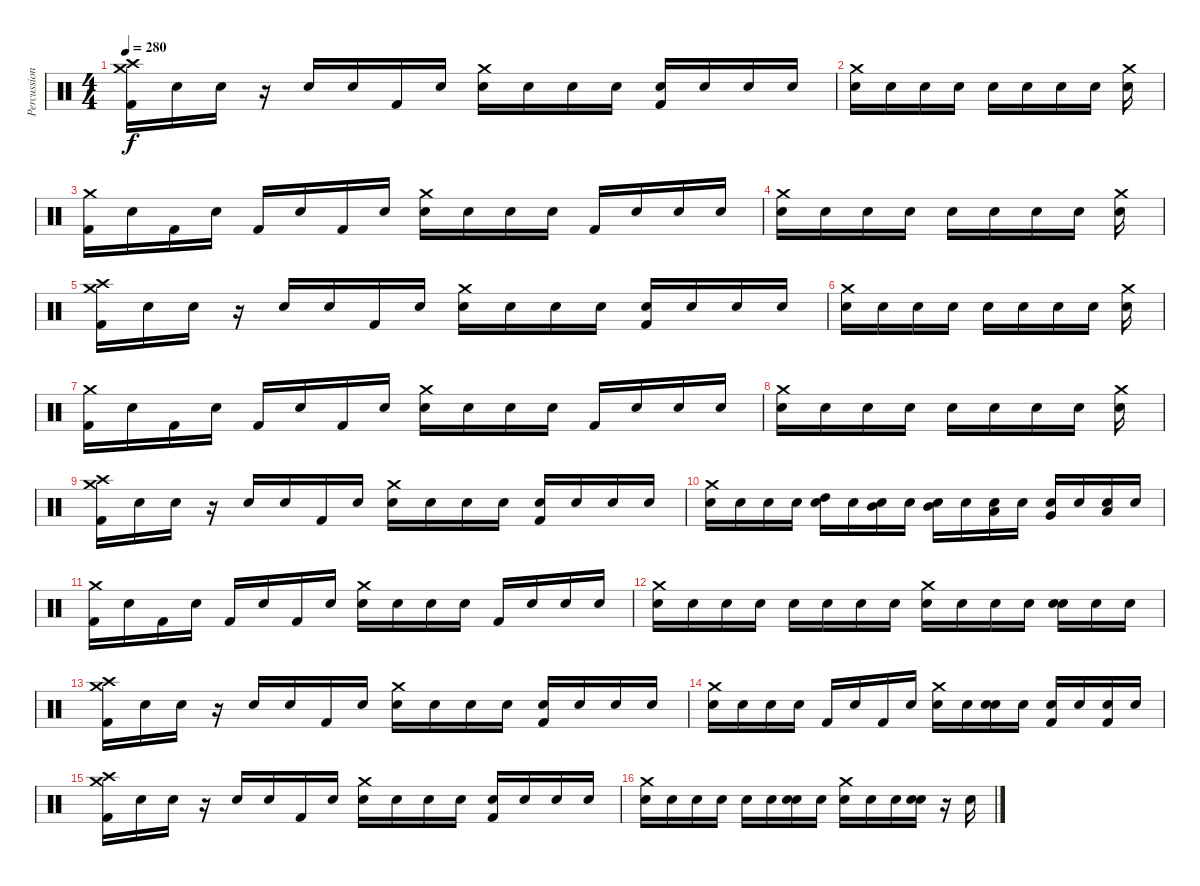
\track ("Percussion" "Percussion") {instrument percussion}
\staff {score}
\articulation defaults
\ts (4 4)
\tempo 280
\clef neutral
\ks c
("Crash high (hit)" "Crash medium (hit)" "Kick (hit) 2").16{dy f} "Snare (hit)".16 "Snare (hit)".16 r.16 "Snare (hit)".16 "Snare (hit)".16 "Kick (hit) 2".16 "Snare (hit)".16 ("Crash medium (hit)" "Snare (hit)").16 "Snare (hit)".16 "Snare (hit)".16 "Snare (hit)".16 ("Kick (hit) 2" "Snare (hit)").16 "Snare (hit)".16 "Snare (hit)".16 "Snare (hit)".16 |
("Crash medium (hit)" "Snare (hit) 2").16 "Snare (hit)".16 "Snare (hit)".16 "Snare (hit)".16 "Snare (hit)".16 "Snare (hit)".16 "Snare (hit)".16 "Snare (hit)".16 ("Crash medium (hit)" "Snare (hit)").16 |
("Crash medium (hit)" "Kick (hit) 2").16 "Snare (hit)".16 "Kick (hit) 2".16 "Snare (hit)".16 "Kick (hit) 2".16 "Snare (hit)".16 "Kick (hit) 2".16 "Snare (hit)".16 ("Crash medium (hit)" "Snare (hit)").16 "Snare (hit)".16 "Snare (hit)".16 "Snare (hit)".16 "Kick (hit) 2".16 "Snare (hit)".16 "Snare (hit)".16 "Snare (hit)".16 |
("Crash medium (hit)" "Snare (hit) 2").16 "Snare (hit)".16 "Snare (hit)".16 "Snare (hit)".16 "Snare (hit)".16 "Snare (hit)".16 "Snare (hit)".16 "Snare (hit)".16 ("Crash medium (hit)" "Snare (hit)").16 |
("Crash high (hit)" "Crash medium (hit)" "Kick (hit) 2").16 "Snare (hit)".16 "Snare (hit)".16 r.16 "Snare (hit)".16 "Snare (hit)".16 "Kick (hit) 2".16 "Snare (hit)".16 ("Crash medium (hit)" "Snare (hit)").16 "Snare (hit)".16 "Snare (hit)".16 "Snare (hit)".16 ("Kick (hit) 2" "Snare (hit)").16 "Snare (hit)".16 "Snare (hit)".16 "Snare (hit)".16 |
("Crash medium (hit)" "Snare (hit) 2").16 "Snare (hit)".16 "Snare (hit)".16 "Snare (hit)".16 "Snare (hit)".16 "Snare (hit)".16 "Snare (hit)".16 "Snare (hit)".16 ("Crash medium (hit)" "Snare (hit)").16 |
("Crash medium (hit)" "Kick (hit) 2").16 "Snare (hit)".16 "Kick (hit) 2".16 "Snare (hit)".16 "Kick (hit) 2".16 "Snare (hit)".16 "Kick (hit) 2".16 "Snare (hit)".16 ("Crash medium (hit)" "Snare (hit)").16 "Snare (hit)".16 "Snare (hit)".16 "Snare (hit)".16 "Kick (hit) 2".16 "Snare (hit)".16 "Snare (hit)".16 "Snare (hit)".16 |
("Crash medium (hit)" "Snare (hit) 2").16 "Snare (hit)".16 "Snare (hit)".16 "Snare (hit)".16 "Snare (hit)".16 "Snare (hit)".16 "Snare (hit)".16 "Snare (hit)".16 ("Crash medium (hit)" "Snare (hit)").16 |
("Crash high (hit)" "Crash medium (hit)" "Kick (hit) 2").16 "Snare (hit)".16 "Snare (hit)".16 r.16 "Snare (hit)".16 "Snare (hit)".16 "Kick (hit) 2".16 "Snare (hit)".16 ("Crash medium (hit)" "Snare (hit)").16 "Snare (hit)".16 "Snare (hit)".16 "Snare (hit)".16 ("Kick (hit) 2" "Snare (hit)").16 "Snare (hit)".16 "Snare (hit)".16 "Snare (hit)".16 |
("Snare (hit) 2" "Crash medium (hit)").16 "Snare (hit)".16 "Snare (hit)".16 "Snare (hit)".16 ("High Tom (hit)" "Snare (hit)").16 "Snare (hit)".16 ("Mid Tom (hit)" "Snare (hit)").16 "Snare (hit)".16 ("Mid Tom (hit)" "Snare (hit)").16 "Snare (hit)".16 ("Low Tom (hit)" "Snare (hit)").16 "Snare (hit)".16 ("Very Low Tom (hit)" "Snare (hit)").16 "Snare (hit)".16 ("Low Floor Tom (hit)" "Snare (hit)").16 "Snare (hit)".16 |
("Crash medium (hit)" "Kick (hit) 2").16 "Snare (hit)".16 "Kick (hit) 2".16 "Snare (hit)".16 "Kick (hit) 2".16 "Snare (hit)".16 "Kick (hit) 2".16 "Snare (hit)".16 ("Crash medium (hit)" "Snare (hit)").16 "Snare (hit)".16 "Snare (hit)".16 "Snare (hit)".16 "Kick (hit) 2".16 "Snare (hit)".16 "Snare (hit)".16 "Snare (hit)".16 |
("Crash medium (hit)" "Snare (hit) 2").16 "Snare (hit)".16 "Snare (hit)".16 "Snare (hit)".16 "Snare (hit)".16 "Snare (hit)".16 "Snare (hit)".16 "Snare (hit)".16 ("Crash medium (hit)" "Snare (hit)").16 "Snare (hit)".16 "Snare (hit)".16 "Snare (hit)".16 ("Snare (hit) 2" "Snare (hit)").16 "Snare (hit)".16 "Snare (hit) 2".16 |
("Crash high (hit)" "Crash medium (hit)" "Kick (hit) 2").16 "Snare (hit)".16 "Snare (hit)".16 r.16 "Snare (hit)".16 "Snare (hit)".16 "Kick (hit) 2".16 "Snare (hit)".16 ("Crash medium (hit)" "Snare (hit)").16 "Snare (hit)".16 "Snare (hit)".16 "Snare (hit)".16 ("Kick (hit) 2" "Snare (hit)").16 "Snare (hit)".16 "Snare (hit)".16 "Snare (hit)".16 |
("Snare (hit) 2" "Crash medium (hit)").16 "Snare (hit)".16 "Snare (hit) 2".16 "Snare (hit)".16 "Kick (hit) 2".16 "Snare (hit)".16 "Kick (hit) 2".16 "Snare (hit)".16 ("Snare (hit) 2" "Crash medium (hit)").16 "Snare (hit)".16 ("Snare (hit) 2" "Snare (hit)").16 "Snare (hit)".16 ("Kick (hit) 2" "Snare (hit)").16 "Snare (hit)".16 ("Kick (hit) 2" "Snare (hit)").16 "Snare (hit)".16 |
("Crash high (hit)" "Crash medium (hit)" "Kick (hit) 2").16 "Snare (hit)".16 "Snare (hit)".16 r.16 "Snare (hit)".16 "Snare (hit)".16 "Kick (hit) 2".16 "Snare (hit)".16 ("Crash medium (hit)" "Snare (hit)").16 "Snare (hit)".16 "Snare (hit)".16 "Snare (hit)".16 ("Kick (hit) 2" "Snare (hit)").16 "Snare (hit)".16 "Snare (hit)".16 "Snare (hit)".16 |
("Crash medium (hit)" "Snare (hit) 2").16 "Snare (hit)".16 "Snare (hit)".16 "Snare (hit)".16 "Snare (hit)".16 "Snare (hit)".16 ("Snare (hit) 2" "Snare (hit)").16 "Snare (hit)".16 ("Crash medium (hit)" "Snare (hit)").16 "Snare (hit)".16 "Snare (hit)".16 ("Snare (hit) 2" "Snare (hit)").16 r.16 "Snare (hit)".16
